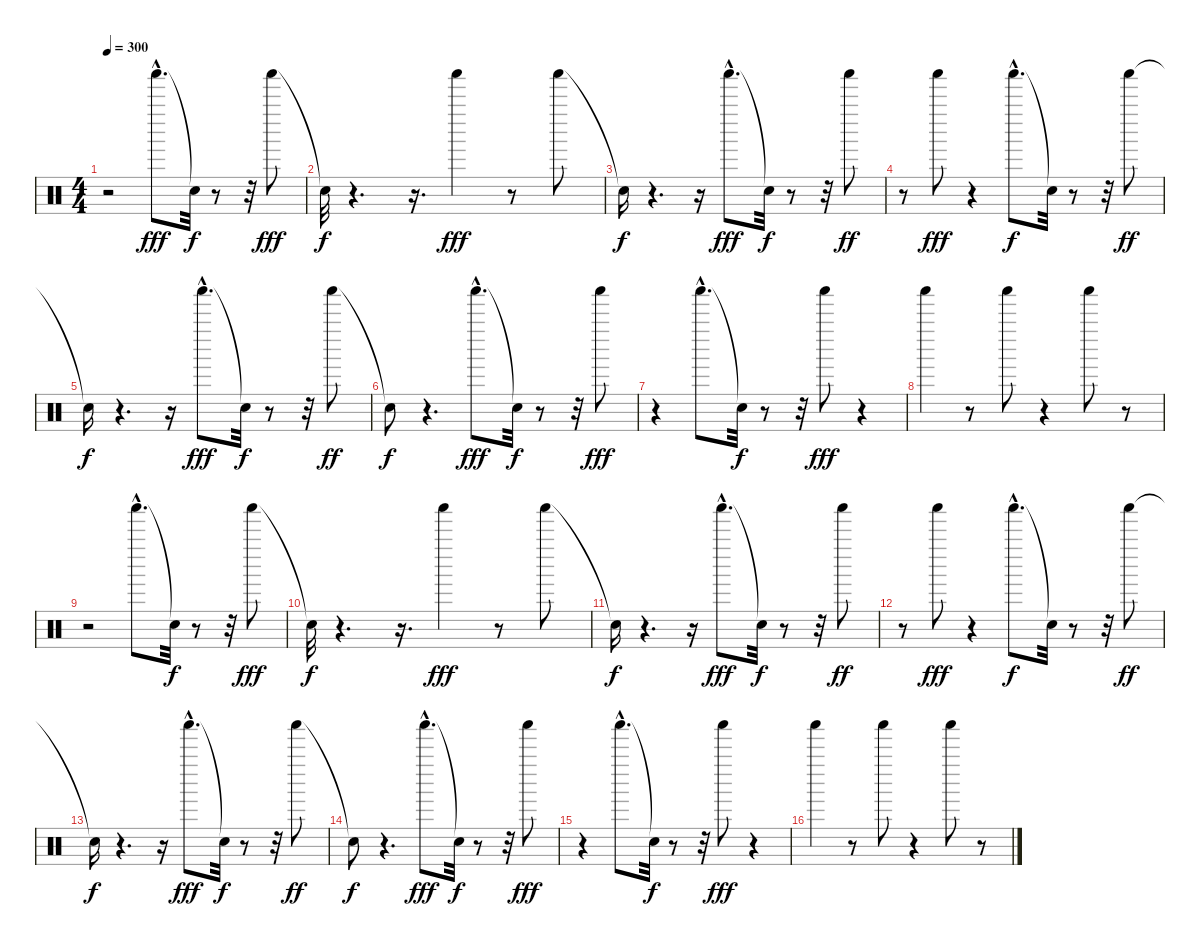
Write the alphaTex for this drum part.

\track "" {instrument percussion}
\staff {score}
\articulation defaults
\ts (4 4)
\tempo 300
\clef neutral
\ks c
r.2{dy fff} "Shaker (hit)"{hac}.8{d} "Snare (hit)"{t}.32{dy f} r.8 r.32 "Shaker (hit)".8{dy fff} |
"Snare (hit)"{t}.32{dy f} r.4{d} r.16{d} "Shaker (hit)".4{dy fff} r.8 "Shaker (hit)".8 |
"Snare (hit)"{t}.16{dy f} r.4{d} r.16 "Shaker (hit)"{hac}.8{d dy fff} "Snare (hit)"{t}.32{dy f} r.8 r.32 "Shaker (hit)".8{dy ff} |
r.8 "Shaker (hit)".8{dy fff} r.4 "Shaker (hit)"{hac}.8{d dy f} "Snare (hit)"{t}.32 r.8 r.32 "Shaker (hit)".8{dy ff} |
"Snare (hit)"{t}.16{dy f} r.4{d} r.16 "Shaker (hit)"{hac}.8{d dy fff} "Snare (hit)"{t}.32{dy f} r.8 r.32 "Shaker (hit)".8{dy ff} |
"Snare (hit)"{t}.8{dy f} r.4{d} "Shaker (hit)"{hac}.8{d dy fff} "Snare (hit)"{t}.32{dy f} r.8 r.32 "Shaker (hit)".8{dy fff} |
r.4 "Shaker (hit)"{hac}.8{d} "Snare (hit)"{t}.32{dy f} r.8 r.32 "Shaker (hit)".8{dy fff} r.4 |
"Shaker (hit)".4 r.8 "Shaker (hit)".8 r.4 "Shaker (hit)".8 r.8 |
r.2 "Shaker (hit)"{hac}.8{d} "Snare (hit)"{t}.32{dy f} r.8 r.32 "Shaker (hit)".8{dy fff} |
"Snare (hit)"{t}.32{dy f} r.4{d} r.16{d} "Shaker (hit)".4{dy fff} r.8 "Shaker (hit)".8 |
"Snare (hit)"{t}.16{dy f} r.4{d} r.16 "Shaker (hit)"{hac}.8{d dy fff} "Snare (hit)"{t}.32{dy f} r.8 r.32 "Shaker (hit)".8{dy ff} |
r.8 "Shaker (hit)".8{dy fff} r.4 "Shaker (hit)"{hac}.8{d dy f} "Snare (hit)"{t}.32 r.8 r.32 "Shaker (hit)".8{dy ff} |
"Snare (hit)"{t}.16{dy f} r.4{d} r.16 "Shaker (hit)"{hac}.8{d dy fff} "Snare (hit)"{t}.32{dy f} r.8 r.32 "Shaker (hit)".8{dy ff} |
"Snare (hit)"{t}.8{dy f} r.4{d} "Shaker (hit)"{hac}.8{d dy fff} "Snare (hit)"{t}.32{dy f} r.8 r.32 "Shaker (hit)".8{dy fff} |
r.4 "Shaker (hit)"{hac}.8{d} "Snare (hit)"{t}.32{dy f} r.8 r.32 "Shaker (hit)".8{dy fff} r.4 |
"Shaker (hit)".4 r.8 "Shaker (hit)".8 r.4 "Shaker (hit)".8 r.8
